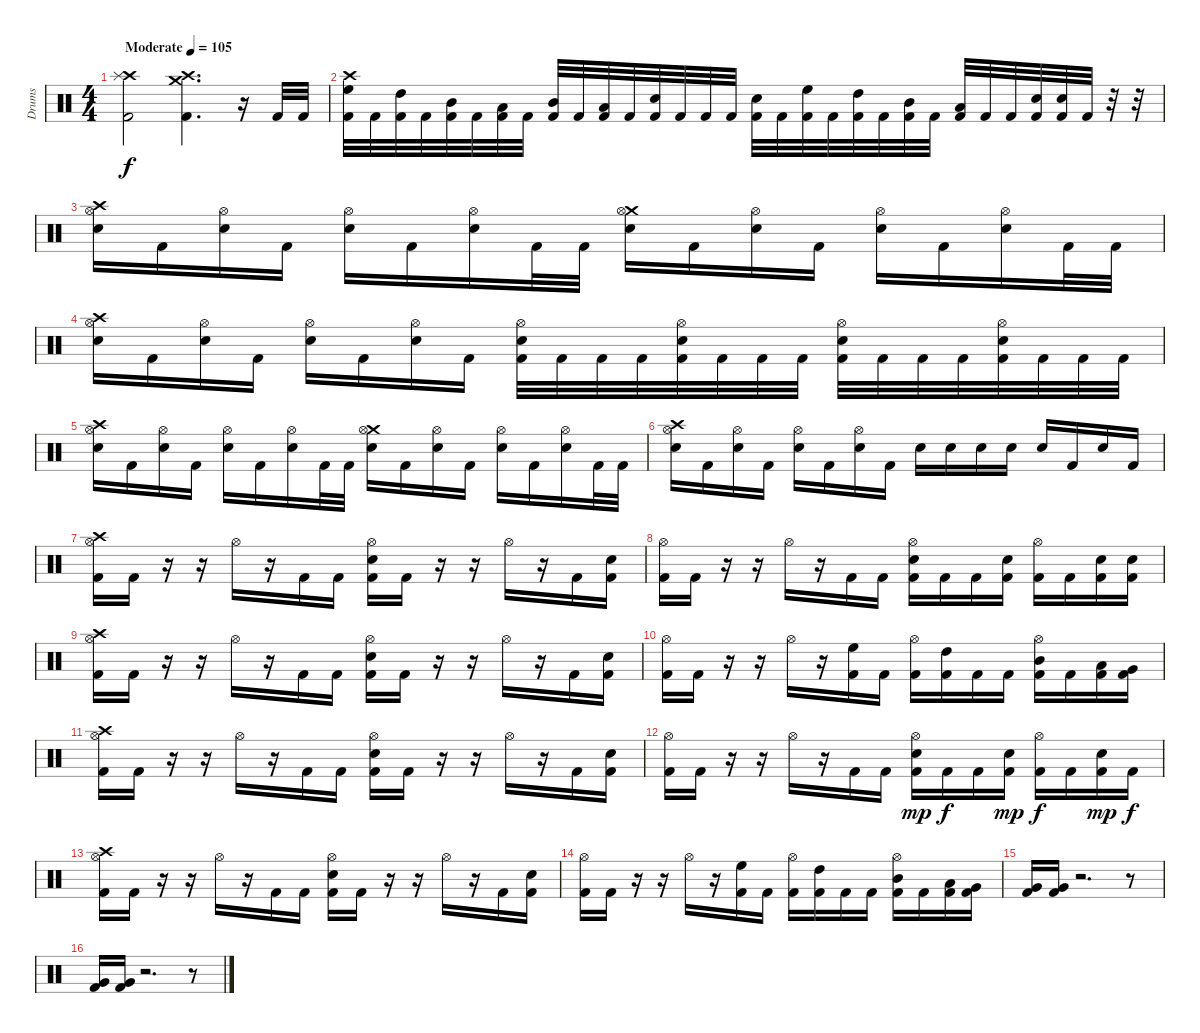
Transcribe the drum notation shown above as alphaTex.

\track ("Drums" "Drums") {instrument percussion}
\staff {score}
\articulation defaults
\ts (4 4)
\tempo (105 "Moderate")
\clef neutral
\ks c
("Crash high (hit)" "Splash (hit)" "Kick (hit) 2").2{dy f balance 0} ("Crash high (hit)" "Crash medium (hit)" "Kick (hit) 2").4{d balance 16} r.16 "Kick (hit) 2".32{volume 16 balance 8} "Kick (hit) 2".32 |
("Crash high (hit)" "High Floor Tom (hit)" "Kick (hit) 2").32 "Kick (hit) 2".32 ("High Tom (hit)" "Kick (hit) 2").32 "Kick (hit) 2".32 ("Mid Tom (hit)" "Kick (hit) 2").32 "Kick (hit) 2".32 ("Low Tom (hit)" "Kick (hit) 2").32 "Kick (hit) 2".32 ("Mid Tom (hit)" "Kick (hit) 2").32 "Kick (hit) 2".32 ("Low Tom (hit)" "Kick (hit) 2").32 "Kick (hit) 2".32 ("Snare (hit) 2" "Kick (hit) 2").32 "Kick (hit) 2".32 "Kick (hit) 2".32 "Kick (hit) 2".32 ("Snare (hit) 2" "Kick (hit) 2").32 "Kick (hit) 2".32 ("High Floor Tom (hit)" "Kick (hit) 2").32 "Kick (hit) 2".32 ("High Tom (hit)" "Kick (hit) 2").32 "Kick (hit) 2".32 ("Mid Tom (hit)" "Kick (hit) 2").32 "Kick (hit) 2".32 ("Low Tom (hit)" "Kick (hit) 2").32 "Kick (hit) 2".32 "Kick (hit) 2".32 ("Snare (hit) 2" "Kick (hit) 2").32 ("Snare (hit) 2" "Kick (hit) 2").32 "Kick (hit) 2".32 r.32 r.32 |
("Crash high (hit)" "Hi-Hat (open)" "Snare (hit) 2").16 "Kick (hit) 2".16 ("Hi-Hat (open)" "Snare (hit) 2").16 "Kick (hit) 2".16 ("Hi-Hat (open)" "Snare (hit) 2").16 "Kick (hit) 2".16 ("Hi-Hat (open)" "Snare (hit) 2").16 "Kick (hit) 2".32 "Kick (hit) 2".32 ("Crash medium (hit)" "Hi-Hat (open)" "Snare (hit) 2").16 "Kick (hit) 2".16 ("Hi-Hat (open)" "Snare (hit) 2").16 "Kick (hit) 2".16 ("Hi-Hat (open)" "Snare (hit) 2").16 "Kick (hit) 2".16 ("Hi-Hat (open)" "Snare (hit) 2").16 "Kick (hit) 2".32 "Kick (hit) 2".32 |
("Crash high (hit)" "Hi-Hat (open)" "Snare (hit) 2").16 "Kick (hit) 2".16 ("Hi-Hat (open)" "Snare (hit) 2").16 "Kick (hit) 2".16 ("Hi-Hat (open)" "Snare (hit) 2").16 "Kick (hit) 2".16 ("Hi-Hat (open)" "Snare (hit) 2").16 "Kick (hit) 2".16 ("Hi-Hat (open)" "Snare (hit) 2" "Kick (hit) 2").32 "Kick (hit) 2".32 "Kick (hit) 2".32 "Kick (hit) 2".32 ("Hi-Hat (open)" "Snare (hit) 2" "Kick (hit) 2").32 "Kick (hit) 2".32 "Kick (hit) 2".32 "Kick (hit) 2".32 ("Hi-Hat (open)" "Snare (hit) 2" "Kick (hit) 2").32 "Kick (hit) 2".32 "Kick (hit) 2".32 "Kick (hit) 2".32 ("Hi-Hat (open)" "Snare (hit) 2" "Kick (hit) 2").32 "Kick (hit) 2".32 "Kick (hit) 2".32 "Kick (hit) 2".32 |
("Crash high (hit)" "Hi-Hat (open)" "Snare (hit) 2").16 "Kick (hit) 2".16 ("Hi-Hat (open)" "Snare (hit) 2").16 "Kick (hit) 2".16 ("Hi-Hat (open)" "Snare (hit) 2").16 "Kick (hit) 2".16 ("Hi-Hat (open)" "Snare (hit) 2").16 "Kick (hit) 2".32 "Kick (hit) 2".32 ("Crash medium (hit)" "Hi-Hat (open)" "Snare (hit) 2").16 "Kick (hit) 2".16 ("Hi-Hat (open)" "Snare (hit) 2").16 "Kick (hit) 2".16 ("Hi-Hat (open)" "Snare (hit) 2").16 "Kick (hit) 2".16 ("Hi-Hat (open)" "Snare (hit) 2").16 "Kick (hit) 2".32 "Kick (hit) 2".32 |
("Crash high (hit)" "Hi-Hat (open)" "Snare (hit) 2").16 "Kick (hit) 2".16 ("Hi-Hat (open)" "Snare (hit) 2").16 "Kick (hit) 2".16 ("Hi-Hat (open)" "Snare (hit) 2").16 "Kick (hit) 2".16 ("Hi-Hat (open)" "Snare (hit) 2").16 "Kick (hit) 2".16 "Snare (hit) 2".16 "Snare (hit) 2".16 "Snare (hit) 2".16 "Snare (hit) 2".16 "Snare (hit) 2".16 "Kick (hit) 2".16 "Snare (hit) 2".16 "Kick (hit) 2".16 |
("Crash high (hit)" "Hi-Hat (open)" "Kick (hit) 2").16 "Kick (hit) 2".16 r.16 r.16 "Hi-Hat (open)".16 r.16 "Kick (hit) 2".16 "Kick (hit) 2".16 ("Hi-Hat (open)" "Snare (hit) 2" "Kick (hit) 2").16 "Kick (hit) 2".16 r.16 r.16 "Hi-Hat (open)".16 r.16 "Kick (hit) 2".16 ("Snare (hit) 2" "Kick (hit) 2").16 |
("Hi-Hat (open)" "Kick (hit) 2").16 "Kick (hit) 2".16 r.16 r.16 "Hi-Hat (open)".16 r.16 "Kick (hit) 2".16 "Kick (hit) 2".16 ("Hi-Hat (open)" "Snare (hit) 2" "Kick (hit) 2").16 "Kick (hit) 2".16 "Kick (hit) 2".16 ("Snare (hit) 2" "Kick (hit) 2").16 ("Hi-Hat (open)" "Kick (hit) 2").16 "Kick (hit) 2".16 ("Snare (hit) 2" "Kick (hit) 2").16 ("Snare (hit) 2" "Kick (hit) 2").16 |
("Crash high (hit)" "Hi-Hat (open)" "Kick (hit) 2").16 "Kick (hit) 2".16 r.16 r.16 "Hi-Hat (open)".16 r.16 "Kick (hit) 2".16 "Kick (hit) 2".16 ("Hi-Hat (open)" "Snare (hit) 2" "Kick (hit) 2").16 "Kick (hit) 2".16 r.16 r.16 "Hi-Hat (open)".16 r.16 "Kick (hit) 2".16 ("Snare (hit) 2" "Kick (hit) 2").16 |
("Hi-Hat (open)" "Kick (hit) 2").16 "Kick (hit) 2".16 r.16 r.16 "Hi-Hat (open)".16 r.16 ("High Floor Tom (hit)" "Kick (hit) 2").16 "Kick (hit) 2".16 ("Hi-Hat (open)" "Kick (hit) 2").16 ("High Tom (hit)" "Kick (hit) 2").16 "Kick (hit) 2".16 "Kick (hit) 2".16 ("Hi-Hat (open)" "Mid Tom (hit)" "Kick (hit) 2").16 "Kick (hit) 2".16 ("Low Tom (hit)" "Kick (hit) 2").16 ("Very Low Tom (hit)" "Kick (hit) 2").16 |
("Crash high (hit)" "Hi-Hat (open)" "Kick (hit) 2").16 "Kick (hit) 2".16 r.16 r.16 "Hi-Hat (open)".16 r.16 "Kick (hit) 2".16 "Kick (hit) 2".16 ("Hi-Hat (open)" "Snare (hit) 2" "Kick (hit) 2").16 "Kick (hit) 2".16 r.16 r.16 "Hi-Hat (open)".16 r.16 "Kick (hit) 2".16 ("Snare (hit) 2" "Kick (hit) 2").16 |
("Hi-Hat (open)" "Kick (hit) 2").16 "Kick (hit) 2".16 r.16 r.16 "Hi-Hat (open)".16 r.16 "Kick (hit) 2".16 "Kick (hit) 2".16 ("Hi-Hat (open)" "Snare (hit) 2" "Kick (hit) 2").16{dy mp} "Kick (hit) 2".16{dy f} "Kick (hit) 2".16 ("Snare (hit) 2" "Kick (hit) 2").16{dy mp} ("Hi-Hat (open)" "Kick (hit) 2").16{dy f} "Kick (hit) 2".16 ("Snare (hit) 2" "Kick (hit) 2").16{dy mp} "Kick (hit) 2".16{dy f} |
("Crash high (hit)" "Hi-Hat (open)" "Kick (hit) 2").16 "Kick (hit) 2".16 r.16 r.16 "Hi-Hat (open)".16 r.16 "Kick (hit) 2".16 "Kick (hit) 2".16 ("Hi-Hat (open)" "Snare (hit) 2" "Kick (hit) 2").16 "Kick (hit) 2".16 r.16 r.16 "Hi-Hat (open)".16 r.16 "Kick (hit) 2".16 ("Snare (hit) 2" "Kick (hit) 2").16 |
("Hi-Hat (open)" "Kick (hit) 2").16 "Kick (hit) 2".16 r.16 r.16 "Hi-Hat (open)".16 r.16 ("High Floor Tom (hit)" "Kick (hit) 2").16 "Kick (hit) 2".16 ("Hi-Hat (open)" "Kick (hit) 2").16 ("High Tom (hit)" "Kick (hit) 2").16 "Kick (hit) 2".16 "Kick (hit) 2".16 ("Hi-Hat (open)" "Mid Tom (hit)" "Kick (hit) 2").16 "Kick (hit) 2".16 ("Low Tom (hit)" "Kick (hit) 2").16 ("Very Low Tom (hit)" "Kick (hit) 2").16 |
("Very Low Tom (hit)" "Kick (hit) 2").16 ("Very Low Tom (hit)" "Kick (hit) 2").16 r.2{d} r.8 |
("Very Low Tom (hit)" "Kick (hit) 2").16 ("Very Low Tom (hit)" "Kick (hit) 2").16 r.2{d} r.8
